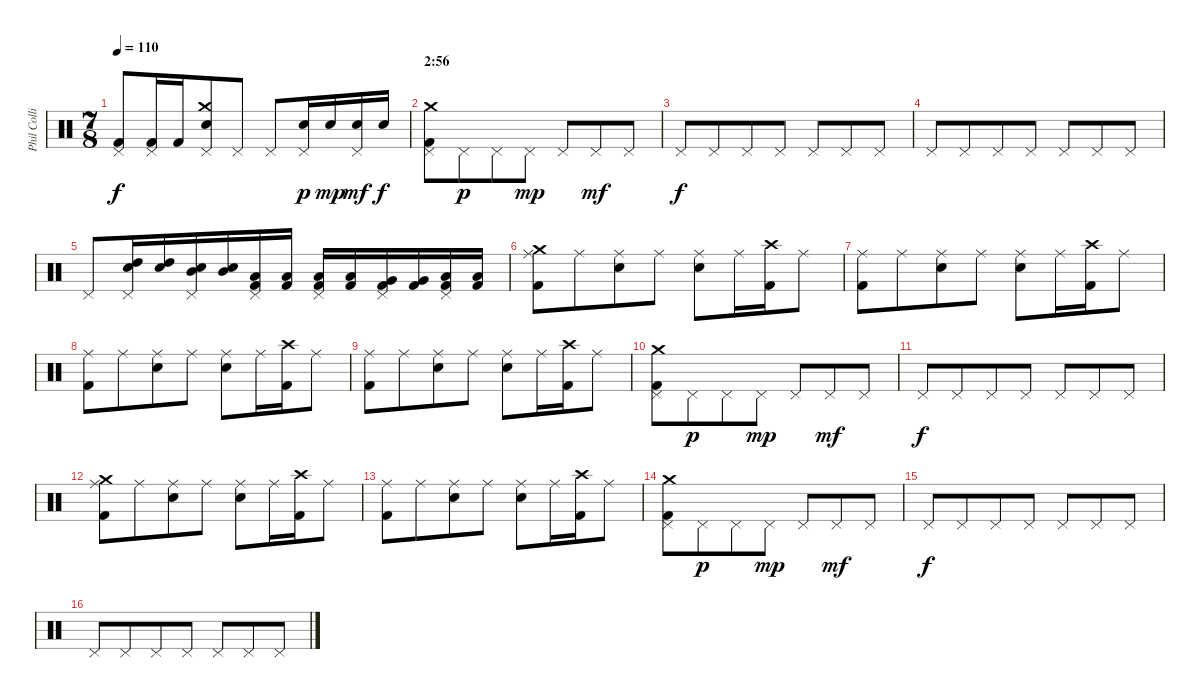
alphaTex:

\track ("Phil Collins (drums)" "Phil Colli") {instrument percussion}
\staff {score}
\articulation defaults
\ts (7 8)
\tempo 110
\clef neutral
\ks c
("Pedal Hi-Hat (hit)" "Kick (hit) 2").8{dy f} ("Pedal Hi-Hat (hit)" "Kick (hit) 2").16 "Kick (hit) 2".16 ("Crash medium (hit)" "Pedal Hi-Hat (hit)" "Electric Snare (hit)").8 "Pedal Hi-Hat (hit)".8 "Pedal Hi-Hat (hit)".8 ("Pedal Hi-Hat (hit)" "Electric Snare (hit)").16{dy p} "Electric Snare (hit)".16{dy mp} ("Pedal Hi-Hat (hit)" "Electric Snare (hit)").16{dy mf} "Electric Snare (hit)".16{dy f} |
\section ("" "2:56")
("Crash medium (hit)" "Pedal Hi-Hat (hit)" "Kick (hit) 2").8 "Pedal Hi-Hat (hit)".8{dy p} "Pedal Hi-Hat (hit)".8 "Pedal Hi-Hat (hit)".8{dy mp} "Pedal Hi-Hat (hit)".8 "Pedal Hi-Hat (hit)".8{dy mf} "Pedal Hi-Hat (hit)".8 |
"Pedal Hi-Hat (hit)".8{dy f} "Pedal Hi-Hat (hit)".8 "Pedal Hi-Hat (hit)".8 "Pedal Hi-Hat (hit)".8 "Pedal Hi-Hat (hit)".8 "Pedal Hi-Hat (hit)".8 "Pedal Hi-Hat (hit)".8 |
"Pedal Hi-Hat (hit)".8 "Pedal Hi-Hat (hit)".8 "Pedal Hi-Hat (hit)".8 "Pedal Hi-Hat (hit)".8 "Pedal Hi-Hat (hit)".8 "Pedal Hi-Hat (hit)".8 "Pedal Hi-Hat (hit)".8 |
"Pedal Hi-Hat (hit)".8 ("High Tom (hit)" "Pedal Hi-Hat (hit)" "Electric Snare (hit)").16 ("High Tom (hit)" "Electric Snare (hit)").16 ("Mid Tom (hit)" "Pedal Hi-Hat (hit)" "Electric Snare (hit)").16 ("Mid Tom (hit)" "Electric Snare (hit)").16 ("Low Tom (hit)" "Pedal Hi-Hat (hit)" "Kick (hit) 2").16 ("Low Tom (hit)" "Kick (hit) 2").16 ("Low Tom (hit)" "Pedal Hi-Hat (hit)" "Kick (hit) 2").16 ("Low Tom (hit)" "Kick (hit) 2").16 ("Very Low Tom (hit)" "Pedal Hi-Hat (hit)" "Kick (hit) 2").16 ("Very Low Tom (hit)" "Kick (hit) 2").16 ("Low Floor Tom (hit)" "Pedal Hi-Hat (hit)" "Kick (hit) 2").16 ("Low Floor Tom (hit)" "Kick (hit) 2").16 |
("Crash medium (hit)" "Ride (middle)" "Kick (hit) 2").8 "Ride (middle)".8 ("Ride (middle)" "Electric Snare (hit)").8 "Ride (middle)".8 ("Ride (middle)" "Electric Snare (hit)").8 "Ride (middle)".16 ("Crash high (hit)" "Kick (hit) 2").16 "Ride (middle)".8 |
("Ride (middle)" "Kick (hit) 2").8 "Ride (middle)".8 ("Ride (middle)" "Electric Snare (hit)").8 "Ride (middle)".8 ("Ride (middle)" "Electric Snare (hit)").8 "Ride (middle)".16 ("Crash high (hit)" "Kick (hit) 2").16 "Ride (middle)".8 |
("Ride (middle)" "Kick (hit) 2").8 "Ride (middle)".8 ("Ride (middle)" "Electric Snare (hit)").8 "Ride (middle)".8 ("Ride (middle)" "Electric Snare (hit)").8 "Ride (middle)".16 ("Crash high (hit)" "Kick (hit) 2").16 "Ride (middle)".8 |
("Ride (middle)" "Kick (hit) 2").8 "Ride (middle)".8 ("Ride (middle)" "Electric Snare (hit)").8 "Ride (middle)".8 ("Ride (middle)" "Electric Snare (hit)").8 "Ride (middle)".16 ("Crash high (hit)" "Kick (hit) 2").16 "Ride (middle)".8 |
("Crash medium (hit)" "Pedal Hi-Hat (hit)" "Kick (hit) 2").8 "Pedal Hi-Hat (hit)".8{dy p} "Pedal Hi-Hat (hit)".8 "Pedal Hi-Hat (hit)".8{dy mp} "Pedal Hi-Hat (hit)".8 "Pedal Hi-Hat (hit)".8{dy mf} "Pedal Hi-Hat (hit)".8 |
"Pedal Hi-Hat (hit)".8{dy f} "Pedal Hi-Hat (hit)".8 "Pedal Hi-Hat (hit)".8 "Pedal Hi-Hat (hit)".8 "Pedal Hi-Hat (hit)".8 "Pedal Hi-Hat (hit)".8 "Pedal Hi-Hat (hit)".8 |
("Crash medium (hit)" "Ride (middle)" "Kick (hit) 2").8 "Ride (middle)".8 ("Ride (middle)" "Electric Snare (hit)").8 "Ride (middle)".8 ("Ride (middle)" "Electric Snare (hit)").8 "Ride (middle)".16 ("Crash high (hit)" "Kick (hit) 2").16 "Ride (middle)".8 |
("Ride (middle)" "Kick (hit) 2").8 "Ride (middle)".8 ("Ride (middle)" "Electric Snare (hit)").8 "Ride (middle)".8 ("Ride (middle)" "Electric Snare (hit)").8 "Ride (middle)".16 ("Crash high (hit)" "Kick (hit) 2").16 "Ride (middle)".8 |
("Crash medium (hit)" "Pedal Hi-Hat (hit)" "Kick (hit) 2").8 "Pedal Hi-Hat (hit)".8{dy p} "Pedal Hi-Hat (hit)".8 "Pedal Hi-Hat (hit)".8{dy mp} "Pedal Hi-Hat (hit)".8 "Pedal Hi-Hat (hit)".8{dy mf} "Pedal Hi-Hat (hit)".8 |
"Pedal Hi-Hat (hit)".8{dy f} "Pedal Hi-Hat (hit)".8 "Pedal Hi-Hat (hit)".8 "Pedal Hi-Hat (hit)".8 "Pedal Hi-Hat (hit)".8 "Pedal Hi-Hat (hit)".8 "Pedal Hi-Hat (hit)".8 |
"Pedal Hi-Hat (hit)".8 "Pedal Hi-Hat (hit)".8 "Pedal Hi-Hat (hit)".8 "Pedal Hi-Hat (hit)".8 "Pedal Hi-Hat (hit)".8 "Pedal Hi-Hat (hit)".8 "Pedal Hi-Hat (hit)".8
